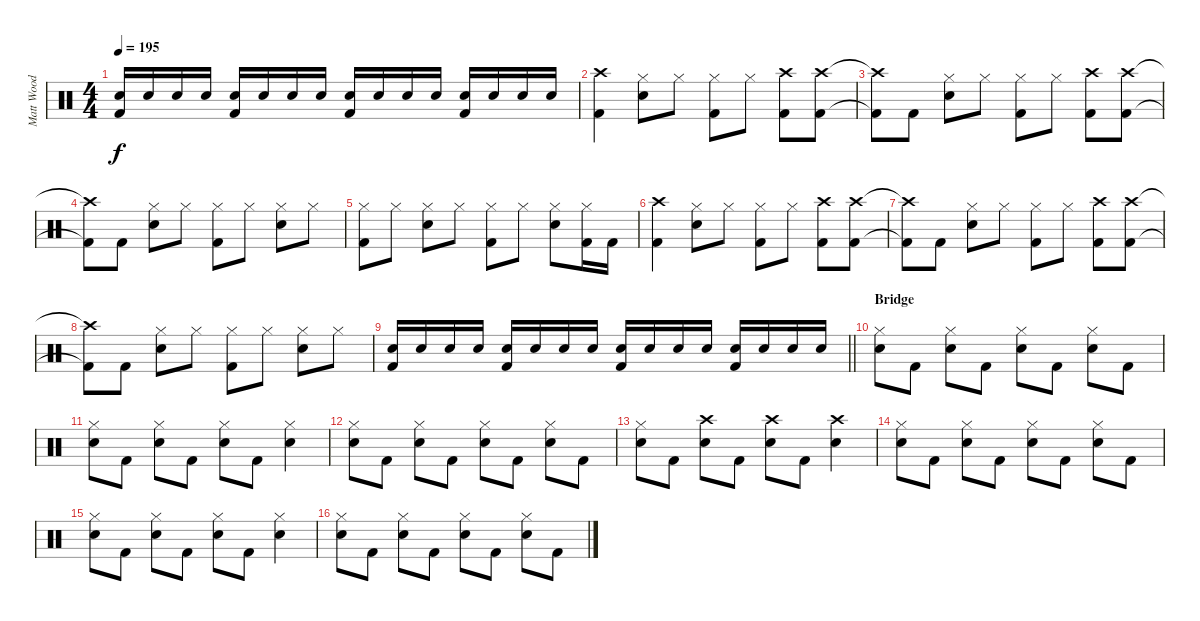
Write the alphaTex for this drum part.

\track ("Matt Wood" "Matt Wood") {instrument percussion}
\staff {score}
\articulation defaults
\ts (4 4)
\tempo 195
\clef neutral
\ks c
("Snare (hit) 2" "Kick (hit) 2").16{dy f} "Snare (hit) 2".16 "Snare (hit) 2".16 "Snare (hit) 2".16 ("Snare (hit) 2" "Kick (hit) 2").16 "Snare (hit) 2".16 "Snare (hit) 2".16 "Snare (hit) 2".16 ("Snare (hit) 2" "Kick (hit) 2").16 "Snare (hit) 2".16 "Snare (hit) 2".16 "Snare (hit) 2".16 ("Snare (hit) 2" "Kick (hit) 2").16 "Snare (hit) 2".16 "Snare (hit) 2".16 "Snare (hit) 2".16 |
("Crash high (hit)" "Kick (hit) 2").4 ("Hi-Hat (closed)" "Snare (hit) 2").8 "Hi-Hat (closed)".8 ("Hi-Hat (closed)" "Kick (hit) 2").8 "Hi-Hat (closed)".8 ("Crash high (hit)" "Kick (hit) 2").8 ("Crash high (hit)" "Kick (hit) 2").8 |
("Crash high (hit)"{t} "Kick (hit) 2"{t}).8 "Kick (hit) 2".8 ("Hi-Hat (closed)" "Snare (hit) 2").8 "Hi-Hat (closed)".8 ("Hi-Hat (closed)" "Kick (hit) 2").8 "Hi-Hat (closed)".8 ("Crash high (hit)" "Kick (hit) 2").8 ("Crash high (hit)" "Kick (hit) 2").8 |
("Crash high (hit)"{t} "Kick (hit) 2"{t}).8 "Kick (hit) 2".8 ("Hi-Hat (closed)" "Snare (hit) 2").8 "Hi-Hat (closed)".8 ("Hi-Hat (closed)" "Kick (hit) 2").8 "Hi-Hat (closed)".8 ("Hi-Hat (closed)" "Snare (hit) 2").8 "Hi-Hat (closed)".8 |
("Hi-Hat (closed)" "Kick (hit) 2").8 "Hi-Hat (closed)".8 ("Hi-Hat (closed)" "Snare (hit) 2").8 "Hi-Hat (closed)".8 ("Hi-Hat (closed)" "Kick (hit) 2").8 "Hi-Hat (closed)".8 ("Hi-Hat (closed)" "Snare (hit) 2").8 ("Hi-Hat (closed)" "Kick (hit) 2").16 "Kick (hit) 2".16 |
("Crash high (hit)" "Kick (hit) 2").4 ("Hi-Hat (closed)" "Snare (hit) 2").8 "Hi-Hat (closed)".8 ("Hi-Hat (closed)" "Kick (hit) 2").8 "Hi-Hat (closed)".8 ("Crash high (hit)" "Kick (hit) 2").8 ("Crash high (hit)" "Kick (hit) 2").8 |
("Crash high (hit)"{t} "Kick (hit) 2"{t}).8 "Kick (hit) 2".8 ("Hi-Hat (closed)" "Snare (hit) 2").8 "Hi-Hat (closed)".8 ("Hi-Hat (closed)" "Kick (hit) 2").8 "Hi-Hat (closed)".8 ("Crash high (hit)" "Kick (hit) 2").8 ("Crash high (hit)" "Kick (hit) 2").8 |
("Crash high (hit)"{t} "Kick (hit) 2"{t}).8 "Kick (hit) 2".8 ("Hi-Hat (closed)" "Snare (hit) 2").8 "Hi-Hat (closed)".8 ("Hi-Hat (closed)" "Kick (hit) 2").8 "Hi-Hat (closed)".8 ("Hi-Hat (closed)" "Snare (hit) 2").8 "Hi-Hat (closed)".8 |
\barLineRight lightlight
("Snare (hit) 2" "Kick (hit) 2").16 "Snare (hit) 2".16 "Snare (hit) 2".16 "Snare (hit) 2".16 ("Snare (hit) 2" "Kick (hit) 2").16 "Snare (hit) 2".16 "Snare (hit) 2".16 "Snare (hit) 2".16 ("Snare (hit) 2" "Kick (hit) 2").16 "Snare (hit) 2".16 "Snare (hit) 2".16 "Snare (hit) 2".16 ("Snare (hit) 2" "Kick (hit) 2").16 "Snare (hit) 2".16 "Snare (hit) 2".16 "Snare (hit) 2".16 |
\section ("" "Bridge")
("Hi-Hat (closed)" "Snare (hit) 2").8 "Kick (hit) 2".8 ("Hi-Hat (closed)" "Snare (hit) 2").8 "Kick (hit) 2".8 ("Hi-Hat (closed)" "Snare (hit) 2").8 "Kick (hit) 2".8 ("Hi-Hat (closed)" "Snare (hit) 2").8 "Kick (hit) 2".8 |
("Hi-Hat (closed)" "Snare (hit) 2").8 "Kick (hit) 2".8 ("Hi-Hat (closed)" "Snare (hit) 2").8 "Kick (hit) 2".8 ("Hi-Hat (closed)" "Snare (hit) 2").8 "Kick (hit) 2".8 ("Hi-Hat (closed)" "Snare (hit) 2").4 |
("Hi-Hat (closed)" "Snare (hit) 2").8 "Kick (hit) 2".8 ("Hi-Hat (closed)" "Snare (hit) 2").8 "Kick (hit) 2".8 ("Hi-Hat (closed)" "Snare (hit) 2").8 "Kick (hit) 2".8 ("Hi-Hat (closed)" "Snare (hit) 2").8 "Kick (hit) 2".8 |
("Hi-Hat (closed)" "Snare (hit) 2").8 "Kick (hit) 2".8 ("Crash high (hit)" "Snare (hit) 2").8 "Kick (hit) 2".8 ("Crash high (hit)" "Snare (hit) 2").8 "Kick (hit) 2".8 ("Crash high (hit)" "Snare (hit) 2").4 |
("Hi-Hat (closed)" "Snare (hit) 2").8 "Kick (hit) 2".8 ("Hi-Hat (closed)" "Snare (hit) 2").8 "Kick (hit) 2".8 ("Hi-Hat (closed)" "Snare (hit) 2").8 "Kick (hit) 2".8 ("Hi-Hat (closed)" "Snare (hit) 2").8 "Kick (hit) 2".8 |
("Hi-Hat (closed)" "Snare (hit) 2").8 "Kick (hit) 2".8 ("Hi-Hat (closed)" "Snare (hit) 2").8 "Kick (hit) 2".8 ("Hi-Hat (closed)" "Snare (hit) 2").8 "Kick (hit) 2".8 ("Hi-Hat (closed)" "Snare (hit) 2").4 |
("Hi-Hat (closed)" "Snare (hit) 2").8 "Kick (hit) 2".8 ("Hi-Hat (closed)" "Snare (hit) 2").8 "Kick (hit) 2".8 ("Hi-Hat (closed)" "Snare (hit) 2").8 "Kick (hit) 2".8 ("Hi-Hat (closed)" "Snare (hit) 2").8 "Kick (hit) 2".8
